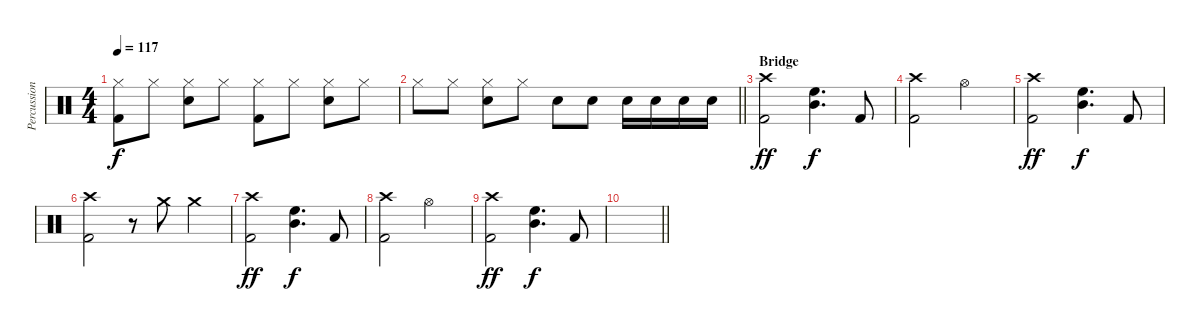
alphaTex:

\track ("Percussion" "Percussion") {instrument percussion}
\staff {score}
\articulation defaults
\ts (4 4)
\tempo 117
\clef neutral
\ks c
("Kick (hit) 2" "Hi-Hat (closed)").8{dy f} "Hi-Hat (closed)".8 ("Hi-Hat (closed)" "Snare (hit) 2").8 "Hi-Hat (closed)".8 ("Kick (hit) 2" "Hi-Hat (closed)").8 "Hi-Hat (closed)".8 ("Hi-Hat (closed)" "Snare (hit) 2").8 "Hi-Hat (closed)".8 |
\barLineRight lightlight "Hi-Hat (closed)".8 "Hi-Hat (closed)".8
("Hi-Hat (closed)" "Snare (hit) 2").8 "Hi-Hat (closed)".8 "Snare (hit) 2".8 "Snare (hit) 2".8 "Snare (hit) 2".16 "Snare (hit) 2".16 "Snare (hit) 2".16 "Snare (hit) 2".16 |
\section ("" "Bridge")
("Crash high (hit)" "Kick (hit) 2").2{dy ff} ("Mid Tom (hit)" "High Floor Tom (hit)").4{d dy f} "Kick (hit) 2".8 |
("Crash high (hit)" "Kick (hit) 2").2 "Hi-Hat (open)".2 |
("Crash high (hit)" "Kick (hit) 2").2{dy ff} ("Mid Tom (hit)" "High Floor Tom (hit)").4{d dy f} "Kick (hit) 2".8 |
("Crash high (hit)" "Kick (hit) 2").2 r.8 "Crash medium (hit)".8 "Crash medium (hit)".4 |
("Crash high (hit)" "Kick (hit) 2").2{dy ff} ("Mid Tom (hit)" "High Floor Tom (hit)").4{d dy f} "Kick (hit) 2".8 |
("Crash high (hit)" "Kick (hit) 2").2 "Hi-Hat (open)".2 |
("Crash high (hit)" "Kick (hit) 2").2{dy ff} ("Mid Tom (hit)" "High Floor Tom (hit)").4{d dy f} "Kick (hit) 2".8 |
\barLineRight lightlight
